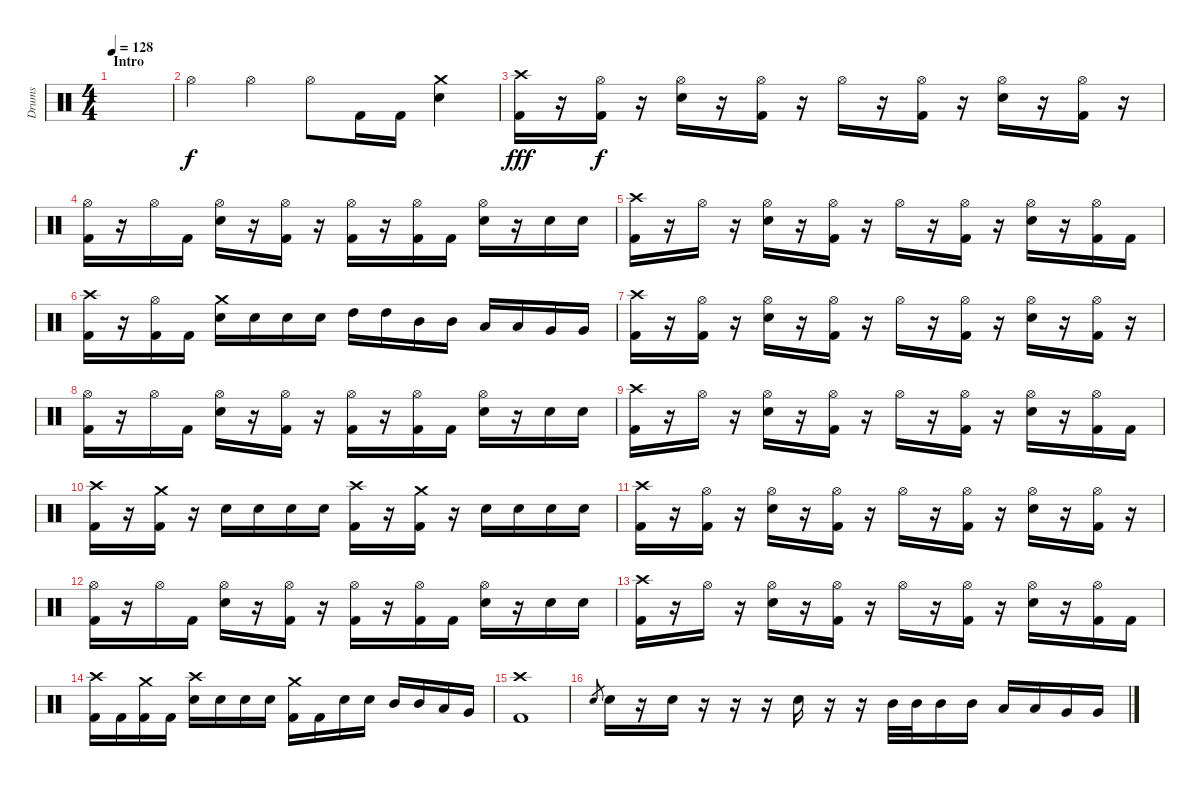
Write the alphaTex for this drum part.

\track ("Drums" "Drums") {instrument percussion}
\staff {score}
\articulation defaults
\ts (4 4)
\section ("" "Intro")
\tempo 128
\clef neutral
\ks c
|
"Hi-Hat (open)".4 "Hi-Hat (open)".4 "Hi-Hat (open)".8 "Kick (hit) 2".16 "Kick (hit) 2".16 ("Crash medium (hit)" "Snare (hit) 2").4 |
("Crash high (hit)" "Kick (hit) 2").16{dy fff} r.16 ("Hi-Hat (open)" "Kick (hit) 2").16{dy f} r.16 ("Hi-Hat (open)" "Snare (hit) 2").16 r.16 ("Hi-Hat (open)" "Kick (hit) 2").16 r.16 "Hi-Hat (open)".16 r.16 ("Hi-Hat (open)" "Kick (hit) 2").16 r.16 ("Hi-Hat (open)" "Snare (hit) 2").16 r.16 ("Hi-Hat (open)" "Kick (hit) 2").16 r.16 |
("Hi-Hat (open)" "Kick (hit) 2").16 r.16 "Hi-Hat (open)".16 "Kick (hit) 2".16 ("Hi-Hat (open)" "Snare (hit) 2").16 r.16 ("Hi-Hat (open)" "Kick (hit) 2").16 r.16 ("Hi-Hat (open)" "Kick (hit) 2").16 r.16 ("Hi-Hat (open)" "Kick (hit) 2").16 "Kick (hit) 2".16 ("Hi-Hat (open)" "Snare (hit) 2").16 r.16 "Snare (hit) 2".16 "Snare (hit) 2".16 |
("Crash high (hit)" "Kick (hit) 2").16 r.16 "Hi-Hat (open)".16 r.16 ("Hi-Hat (open)" "Snare (hit) 2").16 r.16 ("Hi-Hat (open)" "Kick (hit) 2").16 r.16 "Hi-Hat (open)".16 r.16 ("Hi-Hat (open)" "Kick (hit) 2").16 r.16 ("Hi-Hat (open)" "Snare (hit) 2").16 r.16 ("Hi-Hat (open)" "Kick (hit) 2").16 "Kick (hit) 2".16 |
("Crash high (hit)" "Kick (hit) 2").16 r.16 ("Hi-Hat (open)" "Kick (hit) 2").16 "Kick (hit) 2".16 ("Crash medium (hit)" "Snare (hit) 2").16 "Snare (hit) 2".16 "Snare (hit) 2".16 "Snare (hit) 2".16 "High Tom (hit)".16 "High Tom (hit)".16 "Mid Tom (hit)".16 "Mid Tom (hit)".16 "Low Tom (hit)".16 "Low Tom (hit)".16 "Very Low Tom (hit)".16 "Very Low Tom (hit)".16 |
("Crash high (hit)" "Kick (hit) 2").16 r.16 ("Hi-Hat (open)" "Kick (hit) 2").16 r.16 ("Hi-Hat (open)" "Snare (hit) 2").16 r.16 ("Hi-Hat (open)" "Kick (hit) 2").16 r.16 "Hi-Hat (open)".16 r.16 ("Hi-Hat (open)" "Kick (hit) 2").16 r.16 ("Hi-Hat (open)" "Snare (hit) 2").16 r.16 ("Hi-Hat (open)" "Kick (hit) 2").16 r.16 |
("Hi-Hat (open)" "Kick (hit) 2").16 r.16 "Hi-Hat (open)".16 "Kick (hit) 2".16 ("Hi-Hat (open)" "Snare (hit) 2").16 r.16 ("Hi-Hat (open)" "Kick (hit) 2").16 r.16 ("Hi-Hat (open)" "Kick (hit) 2").16 r.16 ("Hi-Hat (open)" "Kick (hit) 2").16 "Kick (hit) 2".16 ("Hi-Hat (open)" "Snare (hit) 2").16 r.16 "Snare (hit) 2".16 "Snare (hit) 2".16 |
("Crash high (hit)" "Kick (hit) 2").16 r.16 "Hi-Hat (open)".16 r.16 ("Hi-Hat (open)" "Snare (hit) 2").16 r.16 ("Hi-Hat (open)" "Kick (hit) 2").16 r.16 "Hi-Hat (open)".16 r.16 ("Hi-Hat (open)" "Kick (hit) 2").16 r.16 ("Hi-Hat (open)" "Snare (hit) 2").16 r.16 ("Hi-Hat (open)" "Kick (hit) 2").16 "Kick (hit) 2".16 |
("Crash high (hit)" "Kick (hit) 2").16 r.16 ("Crash medium (hit)" "Kick (hit) 2").16 r.16 "Snare (hit) 2".16 "Snare (hit) 2".16 "Snare (hit) 2".16 "Snare (hit) 2".16 ("Crash high (hit)" "Kick (hit) 2").16 r.16 ("Crash medium (hit)" "Kick (hit) 2").16 r.16 "Snare (hit) 2".16 "Snare (hit) 2".16 "Snare (hit) 2".16 "Snare (hit) 2".16 |
("Crash high (hit)" "Kick (hit) 2").16 r.16 ("Hi-Hat (open)" "Kick (hit) 2").16 r.16 ("Hi-Hat (open)" "Snare (hit) 2").16 r.16 ("Hi-Hat (open)" "Kick (hit) 2").16 r.16 "Hi-Hat (open)".16 r.16 ("Hi-Hat (open)" "Kick (hit) 2").16 r.16 ("Hi-Hat (open)" "Snare (hit) 2").16 r.16 ("Hi-Hat (open)" "Kick (hit) 2").16 r.16 |
("Hi-Hat (open)" "Kick (hit) 2").16 r.16 "Hi-Hat (open)".16 "Kick (hit) 2".16 ("Hi-Hat (open)" "Snare (hit) 2").16 r.16 ("Hi-Hat (open)" "Kick (hit) 2").16 r.16 ("Hi-Hat (open)" "Kick (hit) 2").16 r.16 ("Hi-Hat (open)" "Kick (hit) 2").16 "Kick (hit) 2".16 ("Hi-Hat (open)" "Snare (hit) 2").16 r.16 "Snare (hit) 2".16 "Snare (hit) 2".16 |
("Crash high (hit)" "Kick (hit) 2").16 r.16 "Hi-Hat (open)".16 r.16 ("Hi-Hat (open)" "Snare (hit) 2").16 r.16 ("Hi-Hat (open)" "Kick (hit) 2").16 r.16 "Hi-Hat (open)".16 r.16 ("Hi-Hat (open)" "Kick (hit) 2").16 r.16 ("Hi-Hat (open)" "Snare (hit) 2").16 r.16 ("Hi-Hat (open)" "Kick (hit) 2").16 "Kick (hit) 2".16 |
("Crash high (hit)" "Kick (hit) 2").16 "Kick (hit) 2".16 ("Crash medium (hit)" "Kick (hit) 2").16 "Kick (hit) 2".16 ("Crash high (hit)" "Snare (hit) 2").16 "Snare (hit) 2".16 "Snare (hit) 2".16 "Snare (hit) 2".16 ("Crash medium (hit)" "Kick (hit) 2").16 "Kick (hit) 2".16 "Snare (hit) 2".16 "Snare (hit) 2".16 "Mid Tom (hit)".16 "Mid Tom (hit)".16 "Low Tom (hit)".16 "Very Low Tom (hit)".16 |
("Crash high (hit)" "Kick (hit) 2").1 |
"Snare (hit) 2".8{gr} "Snare (hit) 2".16 r.16 "Snare (hit) 2".16 r.16 r.16 r.16 "Snare (hit) 2".16 r.16 r.16 "Mid Tom (hit)".32 "Mid Tom (hit)".32 "Mid Tom (hit)".16 "Mid Tom (hit)".16 "Low Tom (hit)".16 "Low Tom (hit)".16 "Very Low Tom (hit)".16 "Very Low Tom (hit)".16
